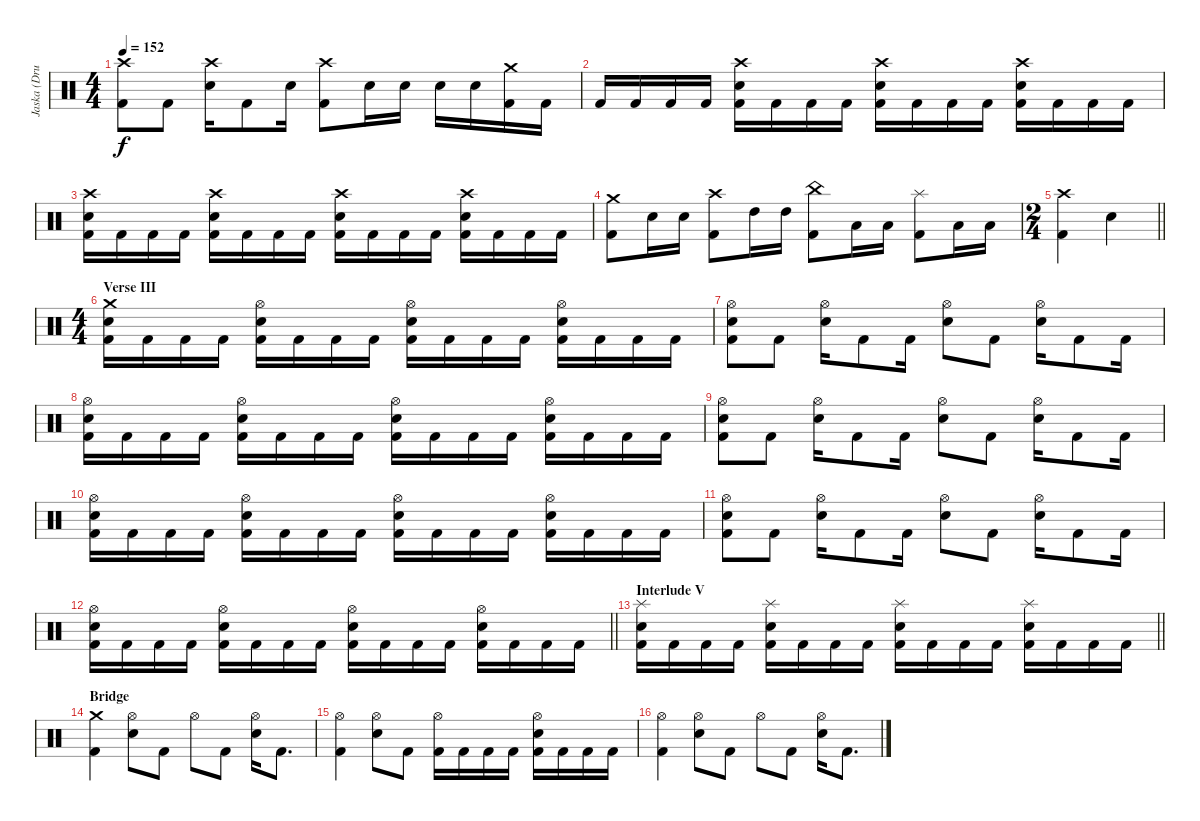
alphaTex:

\track ("Jaska (Drums)" "Jaska (Dru") {instrument percussion}
\staff {score}
\articulation defaults
\ts (4 4)
\tempo 152
\clef neutral
\ks c
("Crash high (hit)" "Kick (hit) 2").8{dy f} "Kick (hit) 2".8 ("Crash high (hit)" "Electric Snare (hit)").16 "Kick (hit) 2".8 "Electric Snare (hit)".16 ("Crash high (hit)" "Kick (hit) 2").8 "Electric Snare (hit)".16 "Electric Snare (hit)".16 "Electric Snare (hit)".16 "Electric Snare (hit)".16 ("Crash medium (hit)" "Kick (hit) 2").16 "Kick (hit) 2".16 |
"Kick (hit) 2".16 "Kick (hit) 2".16 "Kick (hit) 2".16 "Kick (hit) 2".16 ("Crash high (hit)" "Electric Snare (hit)" "Kick (hit) 2").16 "Kick (hit) 2".16 "Kick (hit) 2".16 "Kick (hit) 2".16 ("Crash high (hit)" "Electric Snare (hit)" "Kick (hit) 2").16 "Kick (hit) 2".16 "Kick (hit) 2".16 "Kick (hit) 2".16 ("Crash high (hit)" "Electric Snare (hit)" "Kick (hit) 2").16 "Kick (hit) 2".16 "Kick (hit) 2".16 "Kick (hit) 2".16 |
("Crash high (hit)" "Electric Snare (hit)" "Kick (hit) 2").16 "Kick (hit) 2".16 "Kick (hit) 2".16 "Kick (hit) 2".16 ("Crash high (hit)" "Electric Snare (hit)" "Kick (hit) 2").16 "Kick (hit) 2".16 "Kick (hit) 2".16 "Kick (hit) 2".16 ("Crash high (hit)" "Electric Snare (hit)" "Kick (hit) 2").16 "Kick (hit) 2".16 "Kick (hit) 2".16 "Kick (hit) 2".16 ("Crash high (hit)" "Electric Snare (hit)" "Kick (hit) 2").16 "Kick (hit) 2".16 "Kick (hit) 2".16 "Kick (hit) 2".16 |
("Crash medium (hit)" "Kick (hit) 2").8 "Electric Snare (hit)".16 "Electric Snare (hit)".16 ("Crash high (hit)" "Kick (hit) 2").8 "High Tom (hit)".16 "High Tom (hit)".16 ("China (hit)" "Kick (hit) 2").8 "Low Tom (hit)".16 "Low Tom (hit)".16 ("Splash (hit)" "Kick (hit) 2").8 "Low Floor Tom (hit)".16 "Low Floor Tom (hit)".16 |
\ts (2 4)
\barLineRight lightlight
("Crash high (hit)" "Kick (hit) 2").4 "Electric Snare (hit)".4 |
\ts (4 4)
\section ("" "Verse III")
("Crash medium (hit)" "Electric Snare (hit)" "Kick (hit) 2").16{volume 16 balance 8} "Kick (hit) 2".16 "Kick (hit) 2".16 "Kick (hit) 2".16 ("Hi-Hat (open)" "Electric Snare (hit)" "Kick (hit) 2").16 "Kick (hit) 2".16 "Kick (hit) 2".16 "Kick (hit) 2".16 ("Hi-Hat (open)" "Electric Snare (hit)" "Kick (hit) 2").16 "Kick (hit) 2".16 "Kick (hit) 2".16 "Kick (hit) 2".16 ("Hi-Hat (open)" "Electric Snare (hit)" "Kick (hit) 2").16 "Kick (hit) 2".16 "Kick (hit) 2".16 "Kick (hit) 2".16 |
("Hi-Hat (open)" "Electric Snare (hit)" "Kick (hit) 2").8 "Kick (hit) 2".8 ("Hi-Hat (open)" "Electric Snare (hit)").16 "Kick (hit) 2".8 "Kick (hit) 2".16 ("Hi-Hat (open)" "Electric Snare (hit)").8 "Kick (hit) 2".8 ("Hi-Hat (open)" "Electric Snare (hit)").16 "Kick (hit) 2".8 "Kick (hit) 2".16 |
("Hi-Hat (open)" "Electric Snare (hit)" "Kick (hit) 2").16 "Kick (hit) 2".16 "Kick (hit) 2".16 "Kick (hit) 2".16 ("Hi-Hat (open)" "Electric Snare (hit)" "Kick (hit) 2").16 "Kick (hit) 2".16 "Kick (hit) 2".16 "Kick (hit) 2".16 ("Hi-Hat (open)" "Electric Snare (hit)" "Kick (hit) 2").16 "Kick (hit) 2".16 "Kick (hit) 2".16 "Kick (hit) 2".16 ("Hi-Hat (open)" "Electric Snare (hit)" "Kick (hit) 2").16 "Kick (hit) 2".16 "Kick (hit) 2".16 "Kick (hit) 2".16 |
("Hi-Hat (open)" "Electric Snare (hit)" "Kick (hit) 2").8 "Kick (hit) 2".8 ("Hi-Hat (open)" "Electric Snare (hit)").16 "Kick (hit) 2".8 "Kick (hit) 2".16 ("Hi-Hat (open)" "Electric Snare (hit)").8 "Kick (hit) 2".8 ("Hi-Hat (open)" "Electric Snare (hit)").16 "Kick (hit) 2".8 "Kick (hit) 2".16 |
("Hi-Hat (open)" "Electric Snare (hit)" "Kick (hit) 2").16 "Kick (hit) 2".16 "Kick (hit) 2".16 "Kick (hit) 2".16 ("Hi-Hat (open)" "Electric Snare (hit)" "Kick (hit) 2").16 "Kick (hit) 2".16 "Kick (hit) 2".16 "Kick (hit) 2".16 ("Hi-Hat (open)" "Electric Snare (hit)" "Kick (hit) 2").16 "Kick (hit) 2".16 "Kick (hit) 2".16 "Kick (hit) 2".16 ("Hi-Hat (open)" "Electric Snare (hit)" "Kick (hit) 2").16 "Kick (hit) 2".16 "Kick (hit) 2".16 "Kick (hit) 2".16 |
("Hi-Hat (open)" "Electric Snare (hit)" "Kick (hit) 2").8 "Kick (hit) 2".8 ("Hi-Hat (open)" "Electric Snare (hit)").16 "Kick (hit) 2".8 "Kick (hit) 2".16 ("Hi-Hat (open)" "Electric Snare (hit)").8 "Kick (hit) 2".8 ("Hi-Hat (open)" "Electric Snare (hit)").16 "Kick (hit) 2".8 "Kick (hit) 2".16 |
\barLineRight lightlight
("Hi-Hat (open)" "Electric Snare (hit)" "Kick (hit) 2").16 "Kick (hit) 2".16 "Kick (hit) 2".16 "Kick (hit) 2".16 ("Hi-Hat (open)" "Electric Snare (hit)" "Kick (hit) 2").16 "Kick (hit) 2".16 "Kick (hit) 2".16 "Kick (hit) 2".16 ("Hi-Hat (open)" "Electric Snare (hit)" "Kick (hit) 2").16 "Kick (hit) 2".16 "Kick (hit) 2".16 "Kick (hit) 2".16 ("Hi-Hat (open)" "Electric Snare (hit)" "Kick (hit) 2").16 "Kick (hit) 2".16 "Kick (hit) 2".16 "Kick (hit) 2".16 |
\section ("" "Interlude V")
\barLineRight lightlight
("Splash (hit)" "Electric Snare (hit)" "Kick (hit) 2").16 "Kick (hit) 2".16 "Kick (hit) 2".16 "Kick (hit) 2".16 ("Splash (hit)" "Electric Snare (hit)" "Kick (hit) 2").16 "Kick (hit) 2".16 "Kick (hit) 2".16 "Kick (hit) 2".16 ("Splash (hit)" "Electric Snare (hit)" "Kick (hit) 2").16 "Kick (hit) 2".16 "Kick (hit) 2".16 "Kick (hit) 2".16 ("Splash (hit)" "Electric Snare (hit)" "Kick (hit) 2").16 "Kick (hit) 2".16 "Kick (hit) 2".16 "Kick (hit) 2".16 |
\section ("" "Bridge")
("Crash medium (hit)" "Kick (hit) 2").4 ("Hi-Hat (open)" "Electric Snare (hit)").8 "Kick (hit) 2".8 "Hi-Hat (open)".8 "Kick (hit) 2".8 ("Hi-Hat (open)" "Electric Snare (hit)").16 "Kick (hit) 2".8{d} |
("Hi-Hat (open)" "Kick (hit) 2").4 ("Hi-Hat (open)" "Electric Snare (hit)").8 "Kick (hit) 2".8 ("Hi-Hat (open)" "Kick (hit) 2").16 "Kick (hit) 2".16 "Kick (hit) 2".16 "Kick (hit) 2".16 ("Hi-Hat (open)" "Electric Snare (hit)" "Kick (hit) 2").16 "Kick (hit) 2".16 "Kick (hit) 2".16 "Kick (hit) 2".16 |
("Hi-Hat (open)" "Kick (hit) 2").4 ("Hi-Hat (open)" "Electric Snare (hit)").8 "Kick (hit) 2".8 "Hi-Hat (open)".8 "Kick (hit) 2".8 ("Hi-Hat (open)" "Electric Snare (hit)").16 "Kick (hit) 2".8{d}
